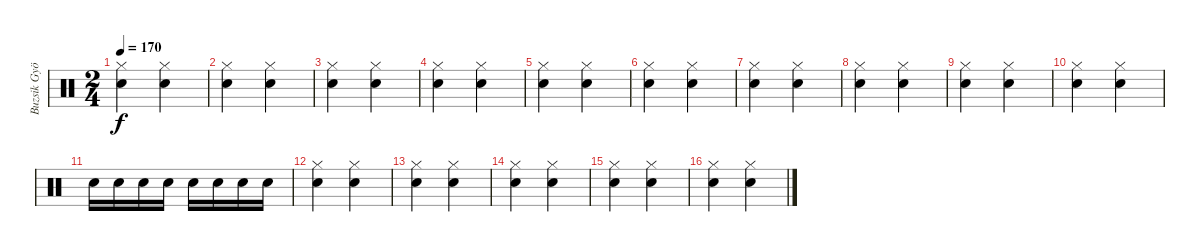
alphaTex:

\track ("Buzsik György (dob)" "Buzsik Gyö") {instrument percussion}
\staff {score}
\articulation defaults
\ts (2 4)
\tempo 170
\clef neutral
\ks c
("Hi-Hat (closed)" "Snare (hit) 2").4{dy f} ("Hi-Hat (closed)" "Snare (hit) 2").4 |
("Hi-Hat (closed)" "Snare (hit) 2").4 ("Hi-Hat (closed)" "Snare (hit) 2").4 |
("Hi-Hat (closed)" "Snare (hit) 2").4 ("Hi-Hat (closed)" "Snare (hit) 2").4 |
("Hi-Hat (closed)" "Snare (hit) 2").4 ("Hi-Hat (closed)" "Snare (hit) 2").4 |
("Hi-Hat (closed)" "Snare (hit) 2").4 ("Hi-Hat (closed)" "Snare (hit) 2").4 |
("Hi-Hat (closed)" "Snare (hit) 2").4 ("Hi-Hat (closed)" "Snare (hit) 2").4 |
("Hi-Hat (closed)" "Snare (hit) 2").4 ("Hi-Hat (closed)" "Snare (hit) 2").4 |
("Hi-Hat (closed)" "Snare (hit) 2").4 ("Hi-Hat (closed)" "Snare (hit) 2").4 |
("Hi-Hat (closed)" "Snare (hit) 2").4 ("Hi-Hat (closed)" "Snare (hit) 2").4 |
("Hi-Hat (closed)" "Snare (hit) 2").4 ("Hi-Hat (closed)" "Snare (hit) 2").4 |
"Snare (hit) 2".16 "Snare (hit) 2".16 "Snare (hit) 2".16 "Snare (hit) 2".16 "Snare (hit) 2".16 "Snare (hit) 2".16 "Snare (hit) 2".16 "Snare (hit) 2".16 |
("Hi-Hat (closed)" "Snare (hit) 2").4 ("Hi-Hat (closed)" "Snare (hit) 2").4 |
("Hi-Hat (closed)" "Snare (hit) 2").4 ("Hi-Hat (closed)" "Snare (hit) 2").4 |
("Hi-Hat (closed)" "Snare (hit) 2").4 ("Hi-Hat (closed)" "Snare (hit) 2").4 |
("Hi-Hat (closed)" "Snare (hit) 2").4 ("Hi-Hat (closed)" "Snare (hit) 2").4 |
("Hi-Hat (closed)" "Snare (hit) 2").4 ("Hi-Hat (closed)" "Snare (hit) 2").4
